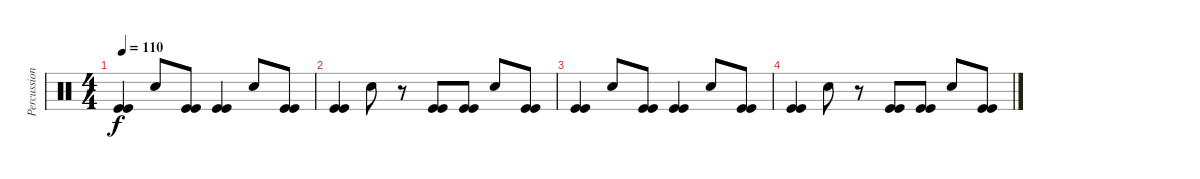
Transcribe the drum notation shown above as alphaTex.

\track ("Percussion" "Percussion") {instrument percussion}
\staff {score}
\articulation defaults
\ts (4 4)
\tempo 110
\clef neutral
\ks c
("Kick (hit)" "Kick (hit)").4{dy f} "Electric Snare (hit)".8 ("Kick (hit)" "Kick (hit)").8 ("Kick (hit)" "Kick (hit)").4 "Electric Snare (hit)".8 ("Kick (hit)" "Kick (hit)").8 |
("Kick (hit)" "Kick (hit)").4 "Electric Snare (hit)".8 r.8 ("Kick (hit)" "Kick (hit)").8 ("Kick (hit)" "Kick (hit)").8{volume 11} "Electric Snare (hit)".8 ("Kick (hit)" "Kick (hit)").8 |
("Kick (hit)" "Kick (hit)").4 "Electric Snare (hit)".8 ("Kick (hit)" "Kick (hit)").8 ("Kick (hit)" "Kick (hit)").4{volume 7} "Electric Snare (hit)".8 ("Kick (hit)" "Kick (hit)").8 |
("Kick (hit)" "Kick (hit)").4 "Electric Snare (hit)".8 r.8{volume 4} ("Kick (hit)" "Kick (hit)").8 ("Kick (hit)" "Kick (hit)").8 "Electric Snare (hit)".8 ("Kick (hit)" "Kick (hit)").8
